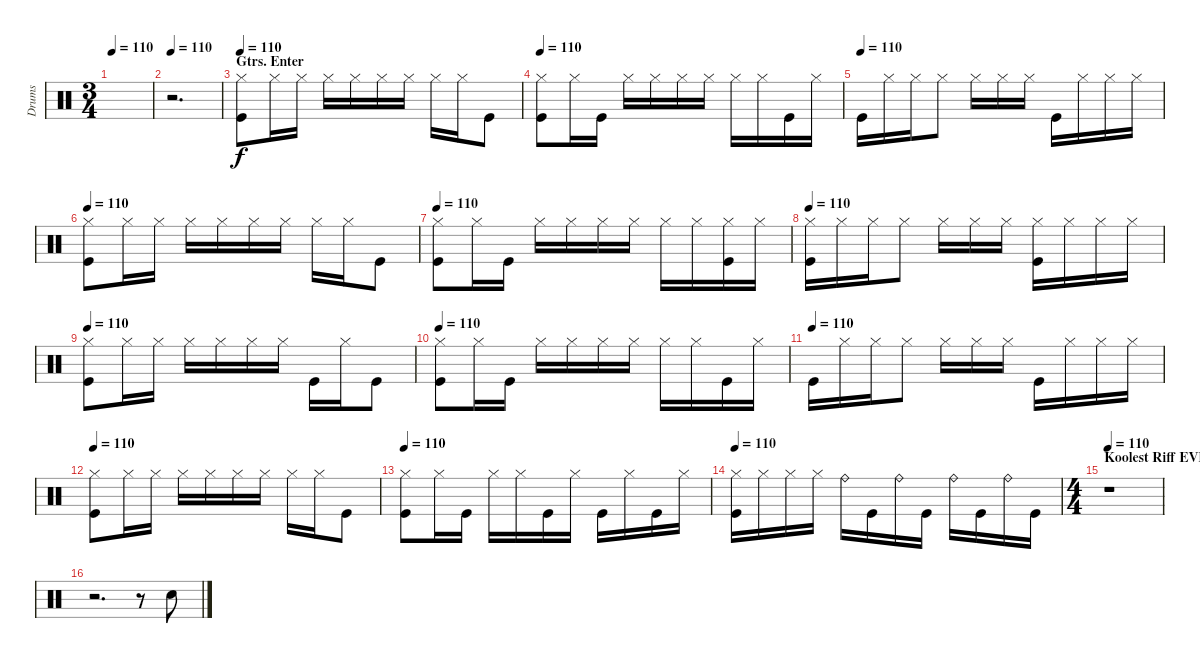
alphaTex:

\track ("Drums" "Drums") {instrument percussion}
\staff {score}
\articulation defaults
\ts (3 4)
\tempo 110
\clef neutral
\ks c
|
\tempo 110
r.2{d} |
\section ("" "Gtrs. Enter")
\tempo 110
("Hi-Hat (closed)" "Kick (hit)").8 "Hi-Hat (closed)".16 "Hi-Hat (closed)".16 "Hi-Hat (closed)".16 "Hi-Hat (closed)".16 "Hi-Hat (closed)".16 "Hi-Hat (closed)".16 "Hi-Hat (closed)".16 "Hi-Hat (closed)".16 "Kick (hit)".8 |
\tempo 110
("Hi-Hat (closed)" "Kick (hit)").8 "Hi-Hat (closed)".16 "Kick (hit)".16 "Hi-Hat (closed)".16 "Hi-Hat (closed)".16 "Hi-Hat (closed)".16 "Hi-Hat (closed)".16 "Hi-Hat (closed)".16 "Hi-Hat (closed)".16 "Kick (hit)".16 "Hi-Hat (closed)".16 |
\tempo (110)
"Kick (hit)".16 "Hi-Hat (closed)".16 "Hi-Hat (closed)".16 "Hi-Hat (closed)".8 "Hi-Hat (closed)".16 "Hi-Hat (closed)".16 "Hi-Hat (closed)".16 "Kick (hit)".16 "Hi-Hat (closed)".16 "Hi-Hat (closed)".16 "Hi-Hat (closed)".16 |
\tempo 110
("Hi-Hat (closed)" "Kick (hit)").8 "Hi-Hat (closed)".16 "Hi-Hat (closed)".16 "Hi-Hat (closed)".16 "Hi-Hat (closed)".16 "Hi-Hat (closed)".16 "Hi-Hat (closed)".16 "Hi-Hat (closed)".16 "Hi-Hat (closed)".16 "Kick (hit)".8 |
\tempo 110
("Hi-Hat (closed)" "Kick (hit)").8 "Hi-Hat (closed)".16 "Kick (hit)".16 "Hi-Hat (closed)".16 "Hi-Hat (closed)".16 "Hi-Hat (closed)".16 "Hi-Hat (closed)".16 "Hi-Hat (closed)".16 "Hi-Hat (closed)".16 ("Hi-Hat (closed)" "Kick (hit)").16 "Hi-Hat (closed)".16 |
\tempo 110
("Hi-Hat (closed)" "Kick (hit)").16 "Hi-Hat (closed)".16 "Hi-Hat (closed)".16 "Hi-Hat (closed)".8 "Hi-Hat (closed)".16 "Hi-Hat (closed)".16 "Hi-Hat (closed)".16 ("Hi-Hat (closed)" "Kick (hit)").16 "Hi-Hat (closed)".16 "Hi-Hat (closed)".16 "Hi-Hat (closed)".16 |
\tempo 110
("Hi-Hat (closed)" "Kick (hit)").8 "Hi-Hat (closed)".16 "Hi-Hat (closed)".16 "Hi-Hat (closed)".16 "Hi-Hat (closed)".16 "Hi-Hat (closed)".16 "Hi-Hat (closed)".16 "Kick (hit)".16 "Hi-Hat (closed)".16 "Kick (hit)".8 |
\tempo 110
("Hi-Hat (closed)" "Kick (hit)").8 "Hi-Hat (closed)".16 "Kick (hit)".16 "Hi-Hat (closed)".16 "Hi-Hat (closed)".16 "Hi-Hat (closed)".16 "Hi-Hat (closed)".16 "Hi-Hat (closed)".16 "Hi-Hat (closed)".16 "Kick (hit)".16 "Hi-Hat (closed)".16 |
\tempo (110)
"Kick (hit)".16 "Hi-Hat (closed)".16 "Hi-Hat (closed)".16 "Hi-Hat (closed)".8 "Hi-Hat (closed)".16 "Hi-Hat (closed)".16 "Hi-Hat (closed)".16 "Kick (hit)".16 "Hi-Hat (closed)".16 "Hi-Hat (closed)".16 "Hi-Hat (closed)".16 |
\tempo 110
("Hi-Hat (closed)" "Kick (hit)").8 "Hi-Hat (closed)".16 "Hi-Hat (closed)".16 "Hi-Hat (closed)".16 "Hi-Hat (closed)".16 "Hi-Hat (closed)".16 "Hi-Hat (closed)".16 "Hi-Hat (closed)".16 "Hi-Hat (closed)".16 "Kick (hit)".8 |
\tempo 110
("Hi-Hat (closed)" "Kick (hit)").8 "Hi-Hat (closed)".16 "Kick (hit)".16 "Hi-Hat (closed)".16 "Hi-Hat (closed)".16 "Kick (hit)".16 "Hi-Hat (closed)".16 "Kick (hit)".16 "Hi-Hat (closed)".16 "Kick (hit)".16 "Hi-Hat (closed)".16 |
\tempo 110
("Hi-Hat (closed)" "Kick (hit)").16 "Hi-Hat (closed)".16 "Hi-Hat (closed)".16 "Hi-Hat (closed)".16 "Ride (bell)".16 "Kick (hit)".16 "Ride (bell)".16 "Kick (hit)".16 "Ride (bell)".16 "Kick (hit)".16 "Ride (bell)".16 "Kick (hit)".16 |
\ts (4 4)
\section ("" "Koolest Riff EVER!")
\tempo 110
r.1 |
r.2{d} r.8 "Snare (hit) 2".8
